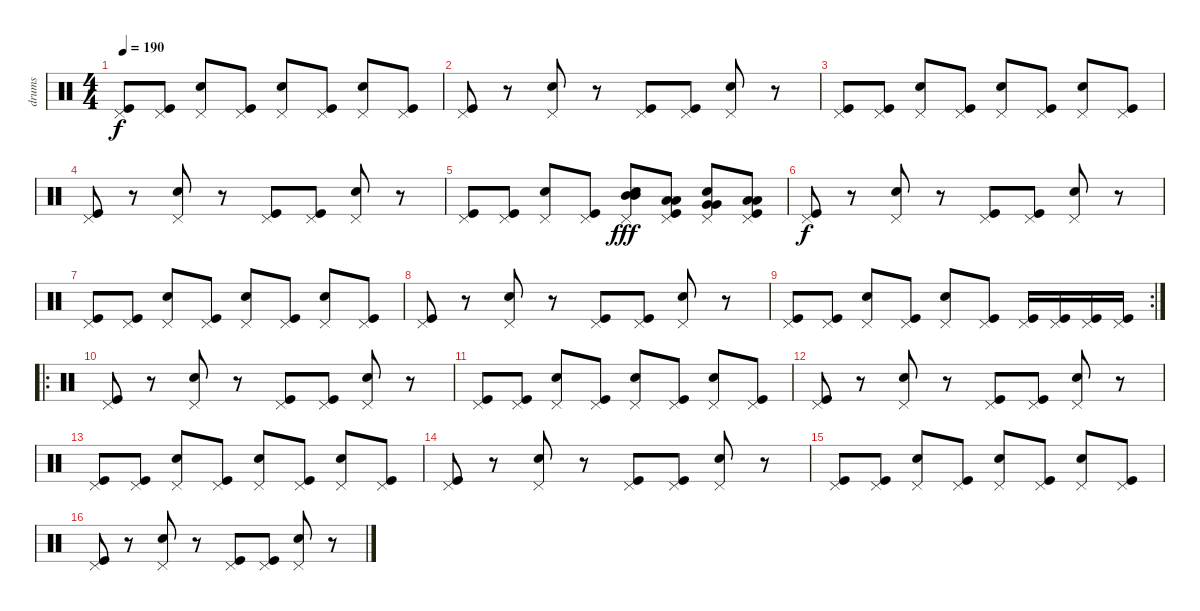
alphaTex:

\track ("drums" "drums") {instrument percussion}
\staff {score}
\articulation defaults
\ts (4 4)
\tempo 190
\clef neutral
\ks c
("Pedal Hi-Hat (hit)" "Kick (hit)").8{dy f} ("Pedal Hi-Hat (hit)" "Kick (hit)").8 ("Pedal Hi-Hat (hit)" "Snare (hit) 2").8 ("Pedal Hi-Hat (hit)" "Kick (hit)").8 ("Pedal Hi-Hat (hit)" "Snare (hit) 2").8 ("Pedal Hi-Hat (hit)" "Kick (hit)").8 ("Pedal Hi-Hat (hit)" "Snare (hit) 2").8 ("Pedal Hi-Hat (hit)" "Kick (hit)").8 |
("Pedal Hi-Hat (hit)" "Kick (hit)").8 r.8 ("Pedal Hi-Hat (hit)" "Snare (hit) 2").8 r.8 ("Pedal Hi-Hat (hit)" "Kick (hit)").8 ("Pedal Hi-Hat (hit)" "Kick (hit)").8 ("Pedal Hi-Hat (hit)" "Snare (hit) 2").8 r.8 |
("Pedal Hi-Hat (hit)" "Kick (hit)").8 ("Pedal Hi-Hat (hit)" "Kick (hit)").8 ("Pedal Hi-Hat (hit)" "Snare (hit) 2").8 ("Pedal Hi-Hat (hit)" "Kick (hit)").8 ("Pedal Hi-Hat (hit)" "Snare (hit) 2").8 ("Pedal Hi-Hat (hit)" "Kick (hit)").8 ("Pedal Hi-Hat (hit)" "Snare (hit) 2").8 ("Pedal Hi-Hat (hit)" "Kick (hit)").8 |
("Pedal Hi-Hat (hit)" "Kick (hit)").8 r.8 ("Pedal Hi-Hat (hit)" "Snare (hit) 2").8 r.8 ("Pedal Hi-Hat (hit)" "Kick (hit)").8 ("Pedal Hi-Hat (hit)" "Kick (hit)").8 ("Pedal Hi-Hat (hit)" "Snare (hit) 2").8 r.8 |
("Pedal Hi-Hat (hit)" "Kick (hit)").8 ("Pedal Hi-Hat (hit)" "Kick (hit)").8 ("Pedal Hi-Hat (hit)" "Snare (hit) 2").8 ("Pedal Hi-Hat (hit)" "Kick (hit)").8 ("Mid Tom (hit)" "Mid Tom (hit)" "Pedal Hi-Hat (hit)" "Snare (hit) 2").8{dy fff} ("Low Tom (hit)" "Low Tom (hit)" "Pedal Hi-Hat (hit)" "Kick (hit)").8 ("Very Low Tom (hit)" "Very Low Tom (hit)" "Pedal Hi-Hat (hit)" "Snare (hit) 2").8 ("Low Floor Tom (hit)" "Low Floor Tom (hit)" "Pedal Hi-Hat (hit)" "Kick (hit)").8 |
("Pedal Hi-Hat (hit)" "Kick (hit)").8{dy f} r.8 ("Pedal Hi-Hat (hit)" "Snare (hit) 2").8 r.8 ("Pedal Hi-Hat (hit)" "Kick (hit)").8 ("Pedal Hi-Hat (hit)" "Kick (hit)").8 ("Pedal Hi-Hat (hit)" "Snare (hit) 2").8 r.8 |
("Pedal Hi-Hat (hit)" "Kick (hit)").8 ("Pedal Hi-Hat (hit)" "Kick (hit)").8 ("Pedal Hi-Hat (hit)" "Snare (hit) 2").8 ("Pedal Hi-Hat (hit)" "Kick (hit)").8 ("Pedal Hi-Hat (hit)" "Snare (hit) 2").8 ("Pedal Hi-Hat (hit)" "Kick (hit)").8 ("Pedal Hi-Hat (hit)" "Snare (hit) 2").8 ("Pedal Hi-Hat (hit)" "Kick (hit)").8 |
("Pedal Hi-Hat (hit)" "Kick (hit)").8 r.8 ("Pedal Hi-Hat (hit)" "Snare (hit) 2").8 r.8 ("Pedal Hi-Hat (hit)" "Kick (hit)").8 ("Pedal Hi-Hat (hit)" "Kick (hit)").8 ("Pedal Hi-Hat (hit)" "Snare (hit) 2").8 r.8 |
\rc 2
("Pedal Hi-Hat (hit)" "Kick (hit)").8 ("Pedal Hi-Hat (hit)" "Kick (hit)").8 ("Pedal Hi-Hat (hit)" "Snare (hit) 2").8 ("Pedal Hi-Hat (hit)" "Kick (hit)").8 ("Pedal Hi-Hat (hit)" "Snare (hit) 2").8 ("Pedal Hi-Hat (hit)" "Kick (hit)").8 ("Pedal Hi-Hat (hit)" "Kick (hit)").16 ("Pedal Hi-Hat (hit)" "Kick (hit)").16 ("Pedal Hi-Hat (hit)" "Kick (hit)").16 ("Pedal Hi-Hat (hit)" "Kick (hit)").16 |
\ro
("Pedal Hi-Hat (hit)" "Kick (hit)").8 r.8 ("Pedal Hi-Hat (hit)" "Snare (hit) 2").8 r.8 ("Pedal Hi-Hat (hit)" "Kick (hit)").8 ("Pedal Hi-Hat (hit)" "Kick (hit)").8 ("Pedal Hi-Hat (hit)" "Snare (hit) 2").8 r.8 |
("Pedal Hi-Hat (hit)" "Kick (hit)").8 ("Pedal Hi-Hat (hit)" "Kick (hit)").8 ("Pedal Hi-Hat (hit)" "Snare (hit) 2").8 ("Pedal Hi-Hat (hit)" "Kick (hit)").8 ("Pedal Hi-Hat (hit)" "Snare (hit) 2").8 ("Pedal Hi-Hat (hit)" "Kick (hit)").8 ("Pedal Hi-Hat (hit)" "Snare (hit) 2").8 ("Pedal Hi-Hat (hit)" "Kick (hit)").8 |
("Pedal Hi-Hat (hit)" "Kick (hit)").8 r.8 ("Pedal Hi-Hat (hit)" "Snare (hit) 2").8 r.8 ("Pedal Hi-Hat (hit)" "Kick (hit)").8 ("Pedal Hi-Hat (hit)" "Kick (hit)").8 ("Pedal Hi-Hat (hit)" "Snare (hit) 2").8 r.8 |
("Pedal Hi-Hat (hit)" "Kick (hit)").8 ("Pedal Hi-Hat (hit)" "Kick (hit)").8 ("Pedal Hi-Hat (hit)" "Snare (hit) 2").8 ("Pedal Hi-Hat (hit)" "Kick (hit)").8 ("Pedal Hi-Hat (hit)" "Snare (hit) 2").8 ("Pedal Hi-Hat (hit)" "Kick (hit)").8 ("Pedal Hi-Hat (hit)" "Snare (hit) 2").8 ("Pedal Hi-Hat (hit)" "Kick (hit)").8 |
("Pedal Hi-Hat (hit)" "Kick (hit)").8 r.8 ("Pedal Hi-Hat (hit)" "Snare (hit) 2").8 r.8 ("Pedal Hi-Hat (hit)" "Kick (hit)").8 ("Pedal Hi-Hat (hit)" "Kick (hit)").8 ("Pedal Hi-Hat (hit)" "Snare (hit) 2").8 r.8 |
("Pedal Hi-Hat (hit)" "Kick (hit)").8 ("Pedal Hi-Hat (hit)" "Kick (hit)").8 ("Pedal Hi-Hat (hit)" "Snare (hit) 2").8 ("Pedal Hi-Hat (hit)" "Kick (hit)").8 ("Pedal Hi-Hat (hit)" "Snare (hit) 2").8 ("Pedal Hi-Hat (hit)" "Kick (hit)").8 ("Pedal Hi-Hat (hit)" "Snare (hit) 2").8 ("Pedal Hi-Hat (hit)" "Kick (hit)").8 |
("Pedal Hi-Hat (hit)" "Kick (hit)").8 r.8 ("Pedal Hi-Hat (hit)" "Snare (hit) 2").8 r.8 ("Pedal Hi-Hat (hit)" "Kick (hit)").8 ("Pedal Hi-Hat (hit)" "Kick (hit)").8 ("Pedal Hi-Hat (hit)" "Snare (hit) 2").8 r.8
